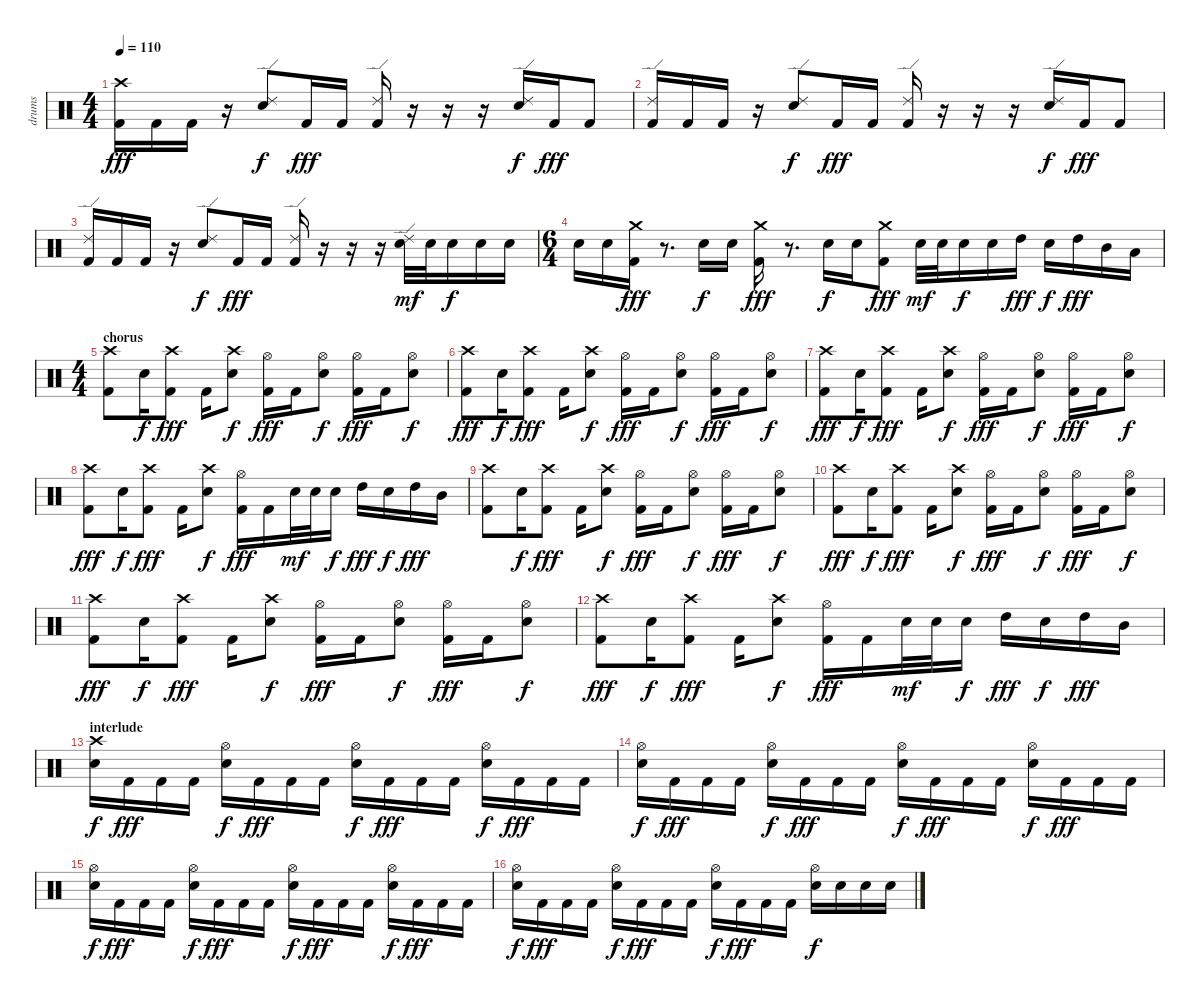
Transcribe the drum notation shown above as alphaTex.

\track ("drums" "drums") {instrument percussion}
\staff {score}
\articulation defaults
\ts (4 4)
\tempo 110
\clef neutral
\ks c
("Crash high (hit)" "Kick (hit) 2").16{dy fff} "Kick (hit) 2".16 "Kick (hit) 2".16 r.16 ("Ride (edge) 2" "Snare (hit) 2").8{dy f} "Kick (hit) 2".16{dy fff} "Kick (hit) 2".16 ("Ride (edge) 2" "Kick (hit) 2").16 r.16 r.16 r.16 ("Ride (edge) 2" "Snare (hit) 2").16{dy f} "Kick (hit) 2".16{dy fff} "Kick (hit) 2".8 |
("Ride (edge) 2" "Kick (hit) 2").16 "Kick (hit) 2".16 "Kick (hit) 2".16 r.16 ("Ride (edge) 2" "Snare (hit) 2").8{dy f} "Kick (hit) 2".16{dy fff} "Kick (hit) 2".16 ("Ride (edge) 2" "Kick (hit) 2").16 r.16 r.16 r.16 ("Ride (edge) 2" "Snare (hit) 2").16{dy f} "Kick (hit) 2".16{dy fff} "Kick (hit) 2".8 |
("Ride (edge) 2" "Kick (hit) 2").16 "Kick (hit) 2".16 "Kick (hit) 2".16 r.16 ("Ride (edge) 2" "Snare (hit) 2").8{dy f} "Kick (hit) 2".16{dy fff} "Kick (hit) 2".16 ("Ride (edge) 2" "Kick (hit) 2").16 r.16 r.16 r.16 ("Ride (edge) 2" "Snare (hit) 2").32{dy mf} "Snare (hit) 2".32 "Snare (hit) 2".16{dy f} "Snare (hit) 2".16 "Snare (hit) 2".16 |
\ts (6 4)
"Snare (hit) 2".16 "Snare (hit) 2".16 ("Crash medium (hit)" "Kick (hit) 2").16{dy fff} r.8{d} "Snare (hit) 2".16{dy f} "Snare (hit) 2".16 ("Crash medium (hit)" "Kick (hit) 2").16{dy fff} r.8{d} "Snare (hit) 2".16{dy f} "Snare (hit) 2".16 ("Crash medium (hit)" "Kick (hit) 2").8{dy fff} "Snare (hit) 2".32{dy mf} "Snare (hit) 2".32 "Snare (hit) 2".16{dy f} "Snare (hit) 2".16 "High Tom (hit)".16{dy fff} "Snare (hit) 2".16{dy f} "High Tom (hit)".16{dy fff} "Mid Tom (hit)".16 "Low Tom (hit)".16 |
\ts (4 4)
\section ("" "chorus")
("Crash high (hit)" "Kick (hit) 2").8 "Snare (hit) 2".16{dy f} ("Crash high (hit)" "Kick (hit) 2").8{dy fff} "Kick (hit) 2".16 ("Crash high (hit)" "Snare (hit) 2").8{dy f} ("Hi-Hat (open)" "Kick (hit) 2").16{dy fff} "Kick (hit) 2".16 ("Hi-Hat (open)" "Snare (hit) 2").8{dy f} ("Hi-Hat (open)" "Kick (hit) 2").16{dy fff} "Kick (hit) 2".16 ("Hi-Hat (open)" "Snare (hit) 2").8{dy f} |
("Crash high (hit)" "Kick (hit) 2").8{dy fff} "Snare (hit) 2".16{dy f} ("Crash high (hit)" "Kick (hit) 2").8{dy fff} "Kick (hit) 2".16 ("Crash high (hit)" "Snare (hit) 2").8{dy f} ("Hi-Hat (open)" "Kick (hit) 2").16{dy fff} "Kick (hit) 2".16 ("Hi-Hat (open)" "Snare (hit) 2").8{dy f} ("Hi-Hat (open)" "Kick (hit) 2").16{dy fff} "Kick (hit) 2".16 ("Hi-Hat (open)" "Snare (hit) 2").8{dy f} |
("Crash high (hit)" "Kick (hit) 2").8{dy fff} "Snare (hit) 2".16{dy f} ("Crash high (hit)" "Kick (hit) 2").8{dy fff} "Kick (hit) 2".16 ("Crash high (hit)" "Snare (hit) 2").8{dy f} ("Hi-Hat (open)" "Kick (hit) 2").16{dy fff} "Kick (hit) 2".16 ("Hi-Hat (open)" "Snare (hit) 2").8{dy f} ("Hi-Hat (open)" "Kick (hit) 2").16{dy fff} "Kick (hit) 2".16 ("Hi-Hat (open)" "Snare (hit) 2").8{dy f} |
("Crash high (hit)" "Kick (hit) 2").8{dy fff} "Snare (hit) 2".16{dy f} ("Crash high (hit)" "Kick (hit) 2").8{dy fff} "Kick (hit) 2".16 ("Crash high (hit)" "Snare (hit) 2").8{dy f} ("Hi-Hat (open)" "Kick (hit) 2").16{dy fff} "Kick (hit) 2".16 "Snare (hit) 2".32{dy mf} "Snare (hit) 2".32 "Snare (hit) 2".16{dy f} "High Tom (hit)".16{dy fff} "Snare (hit) 2".16{dy f} "High Tom (hit)".16{dy fff} "Mid Tom (hit)".16 |
("Crash high (hit)" "Kick (hit) 2").8 "Snare (hit) 2".16{dy f} ("Crash high (hit)" "Kick (hit) 2").8{dy fff} "Kick (hit) 2".16 ("Crash high (hit)" "Snare (hit) 2").8{dy f} ("Hi-Hat (open)" "Kick (hit) 2").16{dy fff} "Kick (hit) 2".16 ("Hi-Hat (open)" "Snare (hit) 2").8{dy f} ("Hi-Hat (open)" "Kick (hit) 2").16{dy fff} "Kick (hit) 2".16 ("Hi-Hat (open)" "Snare (hit) 2").8{dy f} |
("Crash high (hit)" "Kick (hit) 2").8{dy fff} "Snare (hit) 2".16{dy f} ("Crash high (hit)" "Kick (hit) 2").8{dy fff} "Kick (hit) 2".16 ("Crash high (hit)" "Snare (hit) 2").8{dy f} ("Hi-Hat (open)" "Kick (hit) 2").16{dy fff} "Kick (hit) 2".16 ("Hi-Hat (open)" "Snare (hit) 2").8{dy f} ("Hi-Hat (open)" "Kick (hit) 2").16{dy fff} "Kick (hit) 2".16 ("Hi-Hat (open)" "Snare (hit) 2").8{dy f} |
("Crash high (hit)" "Kick (hit) 2").8{dy fff} "Snare (hit) 2".16{dy f} ("Crash high (hit)" "Kick (hit) 2").8{dy fff} "Kick (hit) 2".16 ("Crash high (hit)" "Snare (hit) 2").8{dy f} ("Hi-Hat (open)" "Kick (hit) 2").16{dy fff} "Kick (hit) 2".16 ("Hi-Hat (open)" "Snare (hit) 2").8{dy f} ("Hi-Hat (open)" "Kick (hit) 2").16{dy fff} "Kick (hit) 2".16 ("Hi-Hat (open)" "Snare (hit) 2").8{dy f} |
("Crash high (hit)" "Kick (hit) 2").8{dy fff} "Snare (hit) 2".16{dy f} ("Crash high (hit)" "Kick (hit) 2").8{dy fff} "Kick (hit) 2".16 ("Crash high (hit)" "Snare (hit) 2").8{dy f} ("Hi-Hat (open)" "Kick (hit) 2").16{dy fff} "Kick (hit) 2".16 "Snare (hit) 2".32{dy mf} "Snare (hit) 2".32 "Snare (hit) 2".16{dy f} "High Tom (hit)".16{dy fff} "Snare (hit) 2".16{dy f} "High Tom (hit)".16{dy fff} "Mid Tom (hit)".16 |
\section ("" "interlude")
("Crash high (hit)" "Snare (hit) 2").16{dy f} "Kick (hit) 2".16{dy fff} "Kick (hit) 2".16 "Kick (hit) 2".16 ("Hi-Hat (open)" "Snare (hit) 2").16{dy f} "Kick (hit) 2".16{dy fff} "Kick (hit) 2".16 "Kick (hit) 2".16 ("Hi-Hat (open)" "Snare (hit) 2").16{dy f} "Kick (hit) 2".16{dy fff} "Kick (hit) 2".16 "Kick (hit) 2".16 ("Hi-Hat (open)" "Snare (hit) 2").16{dy f} "Kick (hit) 2".16{dy fff} "Kick (hit) 2".16 "Kick (hit) 2".16 |
("Hi-Hat (open)" "Snare (hit) 2").16{dy f} "Kick (hit) 2".16{dy fff} "Kick (hit) 2".16 "Kick (hit) 2".16 ("Hi-Hat (open)" "Snare (hit) 2").16{dy f} "Kick (hit) 2".16{dy fff} "Kick (hit) 2".16 "Kick (hit) 2".16 ("Hi-Hat (open)" "Snare (hit) 2").16{dy f} "Kick (hit) 2".16{dy fff} "Kick (hit) 2".16 "Kick (hit) 2".16 ("Hi-Hat (open)" "Snare (hit) 2").16{dy f} "Kick (hit) 2".16{dy fff} "Kick (hit) 2".16 "Kick (hit) 2".16 |
("Hi-Hat (open)" "Snare (hit) 2").16{dy f} "Kick (hit) 2".16{dy fff} "Kick (hit) 2".16 "Kick (hit) 2".16 ("Hi-Hat (open)" "Snare (hit) 2").16{dy f} "Kick (hit) 2".16{dy fff} "Kick (hit) 2".16 "Kick (hit) 2".16 ("Hi-Hat (open)" "Snare (hit) 2").16{dy f} "Kick (hit) 2".16{dy fff} "Kick (hit) 2".16 "Kick (hit) 2".16 ("Hi-Hat (open)" "Snare (hit) 2").16{dy f} "Kick (hit) 2".16{dy fff} "Kick (hit) 2".16 "Kick (hit) 2".16 |
("Hi-Hat (open)" "Snare (hit) 2").16{dy f} "Kick (hit) 2".16{dy fff} "Kick (hit) 2".16 "Kick (hit) 2".16 ("Hi-Hat (open)" "Snare (hit) 2").16{dy f} "Kick (hit) 2".16{dy fff} "Kick (hit) 2".16 "Kick (hit) 2".16 ("Hi-Hat (open)" "Snare (hit) 2").16{dy f} "Kick (hit) 2".16{dy fff} "Kick (hit) 2".16 "Kick (hit) 2".16 ("Hi-Hat (open)" "Snare (hit) 2").16{dy f} "Snare (hit) 2".16 "Snare (hit) 2".16 "Snare (hit) 2".16
